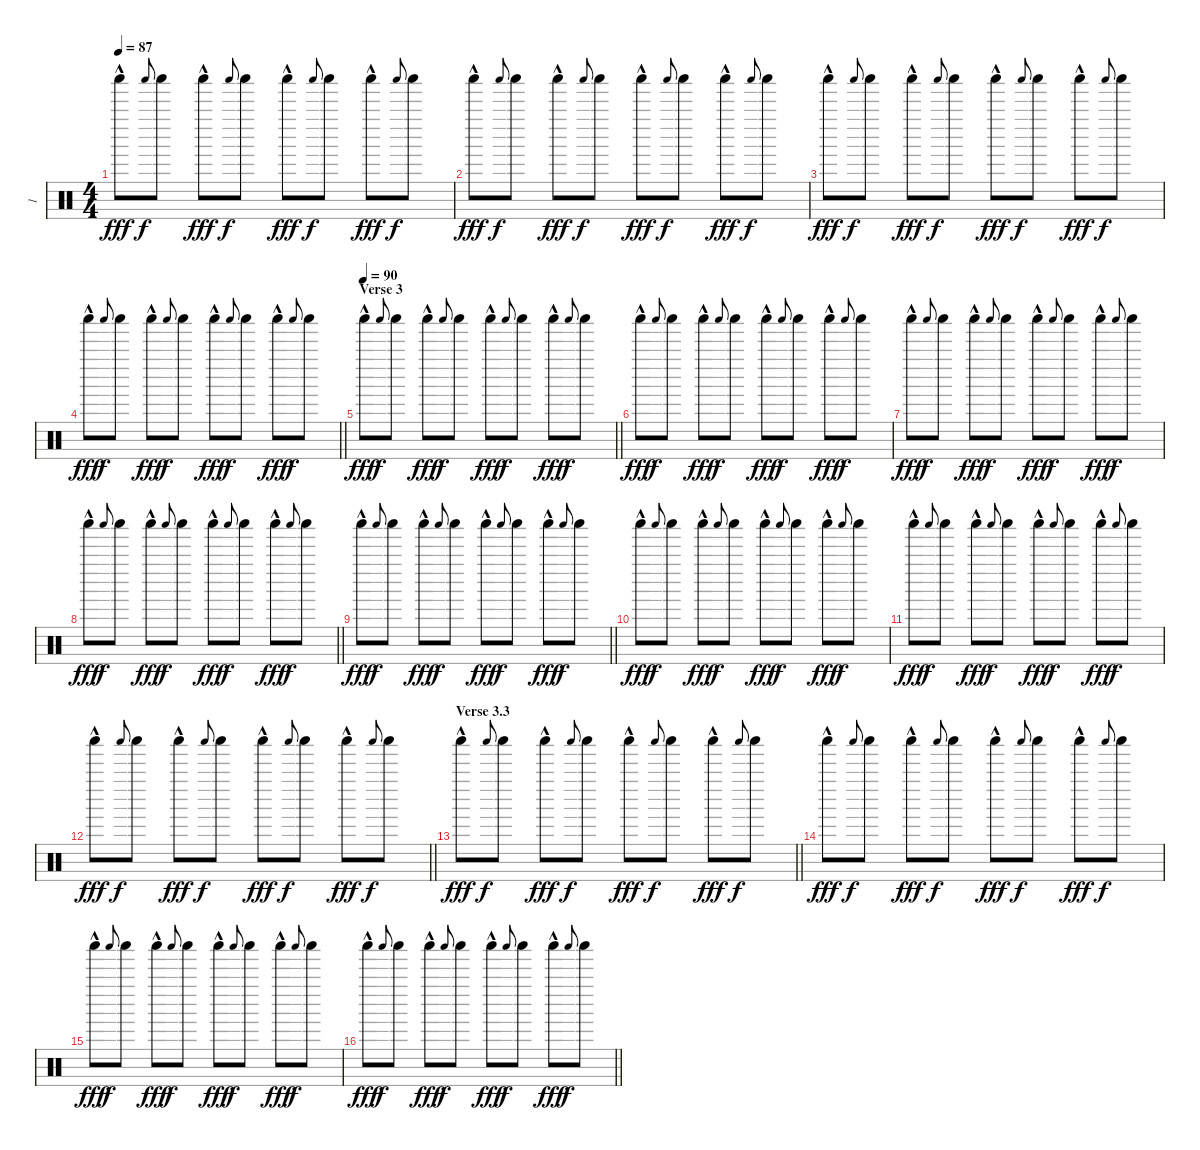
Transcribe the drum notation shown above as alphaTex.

\track ("1" "1") {instrument percussion}
\staff {score}
\articulation defaults
\ts (4 4)
\tempo 87
\clef neutral
\ks c "Shaker (hit)"{hac}.8{dy fff} "Shaker (hit)".8{gr onbeat dy f} "Shaker (hit)".8 "Shaker (hit)"{hac}.8{dy fff} "Shaker (hit)".8{gr onbeat dy f} "Shaker (hit)".8 "Shaker (hit)"{hac}.8{dy fff} "Shaker (hit)".8{gr onbeat dy f} "Shaker (hit)".8 "Shaker (hit)"{hac}.8{dy fff} "Shaker (hit)".8{gr onbeat dy f} "Shaker (hit)".8
|
"Shaker (hit)"{hac}.8{dy fff} "Shaker (hit)".8{gr onbeat dy f} "Shaker (hit)".8 "Shaker (hit)"{hac}.8{dy fff} "Shaker (hit)".8{gr onbeat dy f} "Shaker (hit)".8 "Shaker (hit)"{hac}.8{dy fff} "Shaker (hit)".8{gr onbeat dy f} "Shaker (hit)".8 "Shaker (hit)"{hac}.8{dy fff} "Shaker (hit)".8{gr onbeat dy f} "Shaker (hit)".8 |
"Shaker (hit)"{hac}.8{dy fff} "Shaker (hit)".8{gr onbeat dy f} "Shaker (hit)".8 "Shaker (hit)"{hac}.8{dy fff} "Shaker (hit)".8{gr onbeat dy f} "Shaker (hit)".8 "Shaker (hit)"{hac}.8{dy fff} "Shaker (hit)".8{gr onbeat dy f} "Shaker (hit)".8 "Shaker (hit)"{hac}.8{dy fff} "Shaker (hit)".8{gr onbeat dy f} "Shaker (hit)".8 |
\barLineRight lightlight "Shaker (hit)"{hac}.8{dy fff} "Shaker (hit)".8{gr onbeat dy f} "Shaker (hit)".8 "Shaker (hit)"{hac}.8{dy fff} "Shaker (hit)".8{gr onbeat dy f} "Shaker (hit)".8 "Shaker (hit)"{hac}.8{dy fff} "Shaker (hit)".8{gr onbeat dy f} "Shaker (hit)".8 "Shaker (hit)"{hac}.8{dy fff} "Shaker (hit)".8{gr onbeat dy f} "Shaker (hit)".8
|
\section ("" "Verse 3")
\tempo 90
\barLineRight lightlight "Shaker (hit)"{hac}.8{dy fff} "Shaker (hit)".8{gr onbeat dy f} "Shaker (hit)".8 "Shaker (hit)"{hac}.8{dy fff} "Shaker (hit)".8{gr onbeat dy f} "Shaker (hit)".8 "Shaker (hit)"{hac}.8{dy fff} "Shaker (hit)".8{gr onbeat dy f} "Shaker (hit)".8 "Shaker (hit)"{hac}.8{dy fff} "Shaker (hit)".8{gr onbeat dy f} "Shaker (hit)".8
|
"Shaker (hit)"{hac}.8{dy fff} "Shaker (hit)".8{gr onbeat dy f} "Shaker (hit)".8 "Shaker (hit)"{hac}.8{dy fff} "Shaker (hit)".8{gr onbeat dy f} "Shaker (hit)".8 "Shaker (hit)"{hac}.8{dy fff} "Shaker (hit)".8{gr onbeat dy f} "Shaker (hit)".8 "Shaker (hit)"{hac}.8{dy fff} "Shaker (hit)".8{gr onbeat dy f} "Shaker (hit)".8 |
"Shaker (hit)"{hac}.8{dy fff} "Shaker (hit)".8{gr onbeat dy f} "Shaker (hit)".8 "Shaker (hit)"{hac}.8{dy fff} "Shaker (hit)".8{gr onbeat dy f} "Shaker (hit)".8 "Shaker (hit)"{hac}.8{dy fff} "Shaker (hit)".8{gr onbeat dy f} "Shaker (hit)".8 "Shaker (hit)"{hac}.8{dy fff} "Shaker (hit)".8{gr onbeat dy f} "Shaker (hit)".8 |
\barLineRight lightlight "Shaker (hit)"{hac}.8{dy fff} "Shaker (hit)".8{gr onbeat dy f} "Shaker (hit)".8 "Shaker (hit)"{hac}.8{dy fff} "Shaker (hit)".8{gr onbeat dy f} "Shaker (hit)".8 "Shaker (hit)"{hac}.8{dy fff} "Shaker (hit)".8{gr onbeat dy f} "Shaker (hit)".8 "Shaker (hit)"{hac}.8{dy fff} "Shaker (hit)".8{gr onbeat dy f} "Shaker (hit)".8
|
\barLineRight lightlight "Shaker (hit)"{hac}.8{dy fff} "Shaker (hit)".8{gr onbeat dy f} "Shaker (hit)".8 "Shaker (hit)"{hac}.8{dy fff} "Shaker (hit)".8{gr onbeat dy f} "Shaker (hit)".8 "Shaker (hit)"{hac}.8{dy fff} "Shaker (hit)".8{gr onbeat dy f} "Shaker (hit)".8 "Shaker (hit)"{hac}.8{dy fff} "Shaker (hit)".8{gr onbeat dy f} "Shaker (hit)".8
|
"Shaker (hit)"{hac}.8{dy fff} "Shaker (hit)".8{gr onbeat dy f} "Shaker (hit)".8 "Shaker (hit)"{hac}.8{dy fff} "Shaker (hit)".8{gr onbeat dy f} "Shaker (hit)".8 "Shaker (hit)"{hac}.8{dy fff} "Shaker (hit)".8{gr onbeat dy f} "Shaker (hit)".8 "Shaker (hit)"{hac}.8{dy fff} "Shaker (hit)".8{gr onbeat dy f} "Shaker (hit)".8 |
"Shaker (hit)"{hac}.8{dy fff} "Shaker (hit)".8{gr onbeat dy f} "Shaker (hit)".8 "Shaker (hit)"{hac}.8{dy fff} "Shaker (hit)".8{gr onbeat dy f} "Shaker (hit)".8 "Shaker (hit)"{hac}.8{dy fff} "Shaker (hit)".8{gr onbeat dy f} "Shaker (hit)".8 "Shaker (hit)"{hac}.8{dy fff} "Shaker (hit)".8{gr onbeat dy f} "Shaker (hit)".8 |
\barLineRight lightlight "Shaker (hit)"{hac}.8{dy fff} "Shaker (hit)".8{gr onbeat dy f} "Shaker (hit)".8 "Shaker (hit)"{hac}.8{dy fff} "Shaker (hit)".8{gr onbeat dy f} "Shaker (hit)".8 "Shaker (hit)"{hac}.8{dy fff} "Shaker (hit)".8{gr onbeat dy f} "Shaker (hit)".8 "Shaker (hit)"{hac}.8{dy fff} "Shaker (hit)".8{gr onbeat dy f} "Shaker (hit)".8
|
\section ("" "Verse 3.3")
\barLineRight lightlight "Shaker (hit)"{hac}.8{dy fff} "Shaker (hit)".8{gr onbeat dy f} "Shaker (hit)".8 "Shaker (hit)"{hac}.8{dy fff} "Shaker (hit)".8{gr onbeat dy f} "Shaker (hit)".8 "Shaker (hit)"{hac}.8{dy fff} "Shaker (hit)".8{gr onbeat dy f} "Shaker (hit)".8 "Shaker (hit)"{hac}.8{dy fff} "Shaker (hit)".8{gr onbeat dy f} "Shaker (hit)".8
|
"Shaker (hit)"{hac}.8{dy fff} "Shaker (hit)".8{gr onbeat dy f} "Shaker (hit)".8 "Shaker (hit)"{hac}.8{dy fff} "Shaker (hit)".8{gr onbeat dy f} "Shaker (hit)".8 "Shaker (hit)"{hac}.8{dy fff} "Shaker (hit)".8{gr onbeat dy f} "Shaker (hit)".8 "Shaker (hit)"{hac}.8{dy fff} "Shaker (hit)".8{gr onbeat dy f} "Shaker (hit)".8 |
"Shaker (hit)"{hac}.8{dy fff} "Shaker (hit)".8{gr onbeat dy f} "Shaker (hit)".8 "Shaker (hit)"{hac}.8{dy fff} "Shaker (hit)".8{gr onbeat dy f} "Shaker (hit)".8 "Shaker (hit)"{hac}.8{dy fff} "Shaker (hit)".8{gr onbeat dy f} "Shaker (hit)".8 "Shaker (hit)"{hac}.8{dy fff} "Shaker (hit)".8{gr onbeat dy f} "Shaker (hit)".8 |
\barLineRight lightlight "Shaker (hit)"{hac}.8{dy fff} "Shaker (hit)".8{gr onbeat dy f} "Shaker (hit)".8 "Shaker (hit)"{hac}.8{dy fff} "Shaker (hit)".8{gr onbeat dy f} "Shaker (hit)".8 "Shaker (hit)"{hac}.8{dy fff} "Shaker (hit)".8{gr onbeat dy f} "Shaker (hit)".8 "Shaker (hit)"{hac}.8{dy fff} "Shaker (hit)".8{gr onbeat dy f} "Shaker (hit)".8
